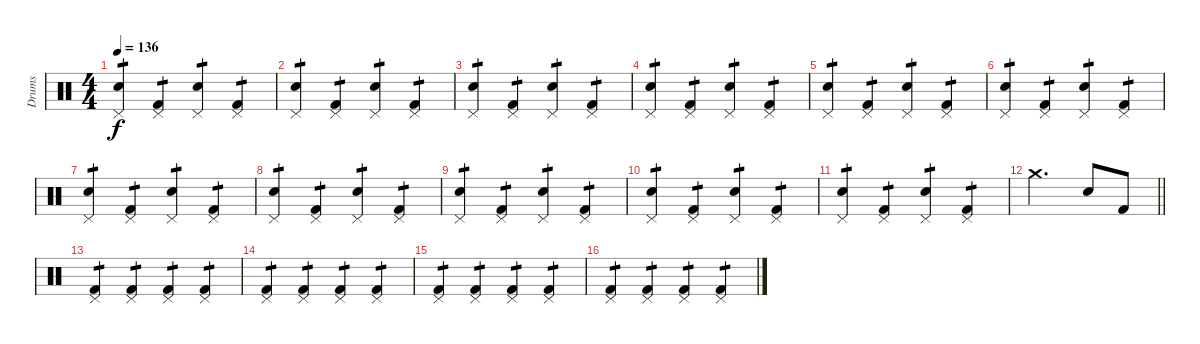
\track ("Drums" "Drums") {instrument percussion}
\staff {score}
\articulation defaults
\ts (4 4)
\tempo 136
\clef neutral
\ks c
("Snare (hit) 2" "Pedal Hi-Hat (hit)").4{tp 1 dy f} ("Kick (hit) 2" "Pedal Hi-Hat (hit)").4{tp 1} ("Snare (hit) 2" "Pedal Hi-Hat (hit)").4{tp 1} ("Kick (hit) 2" "Pedal Hi-Hat (hit)").4{tp 1} |
("Snare (hit) 2" "Pedal Hi-Hat (hit)").4{tp 1} ("Kick (hit) 2" "Pedal Hi-Hat (hit)").4{tp 1} ("Snare (hit) 2" "Pedal Hi-Hat (hit)").4{tp 1} ("Kick (hit) 2" "Pedal Hi-Hat (hit)").4{tp 1} |
("Snare (hit) 2" "Pedal Hi-Hat (hit)").4{tp 1} ("Kick (hit) 2" "Pedal Hi-Hat (hit)").4{tp 1} ("Snare (hit) 2" "Pedal Hi-Hat (hit)").4{tp 1} ("Kick (hit) 2" "Pedal Hi-Hat (hit)").4{tp 1} |
("Snare (hit) 2" "Pedal Hi-Hat (hit)").4{tp 1} ("Kick (hit) 2" "Pedal Hi-Hat (hit)").4{tp 1} ("Snare (hit) 2" "Pedal Hi-Hat (hit)").4{tp 1} ("Kick (hit) 2" "Pedal Hi-Hat (hit)").4{tp 1} |
("Snare (hit) 2" "Pedal Hi-Hat (hit)").4{tp 1} ("Kick (hit) 2" "Pedal Hi-Hat (hit)").4{tp 1} ("Snare (hit) 2" "Pedal Hi-Hat (hit)").4{tp 1} ("Kick (hit) 2" "Pedal Hi-Hat (hit)").4{tp 1} |
("Snare (hit) 2" "Pedal Hi-Hat (hit)").4{tp 1} ("Kick (hit) 2" "Pedal Hi-Hat (hit)").4{tp 1} ("Snare (hit) 2" "Pedal Hi-Hat (hit)").4{tp 1} ("Kick (hit) 2" "Pedal Hi-Hat (hit)").4{tp 1} |
("Snare (hit) 2" "Pedal Hi-Hat (hit)").4{tp 1} ("Kick (hit) 2" "Pedal Hi-Hat (hit)").4{tp 1} ("Snare (hit) 2" "Pedal Hi-Hat (hit)").4{tp 1} ("Kick (hit) 2" "Pedal Hi-Hat (hit)").4{tp 1} |
("Snare (hit) 2" "Pedal Hi-Hat (hit)").4{tp 1} ("Kick (hit) 2" "Pedal Hi-Hat (hit)").4{tp 1} ("Snare (hit) 2" "Pedal Hi-Hat (hit)").4{tp 1} ("Kick (hit) 2" "Pedal Hi-Hat (hit)").4{tp 1} |
("Snare (hit) 2" "Pedal Hi-Hat (hit)").4{tp 1} ("Kick (hit) 2" "Pedal Hi-Hat (hit)").4{tp 1} ("Snare (hit) 2" "Pedal Hi-Hat (hit)").4{tp 1} ("Kick (hit) 2" "Pedal Hi-Hat (hit)").4{tp 1} |
("Snare (hit) 2" "Pedal Hi-Hat (hit)").4{tp 1} ("Kick (hit) 2" "Pedal Hi-Hat (hit)").4{tp 1} ("Snare (hit) 2" "Pedal Hi-Hat (hit)").4{tp 1} ("Kick (hit) 2" "Pedal Hi-Hat (hit)").4{tp 1} |
("Snare (hit) 2" "Pedal Hi-Hat (hit)").4{tp 1} ("Kick (hit) 2" "Pedal Hi-Hat (hit)").4{tp 1} ("Snare (hit) 2" "Pedal Hi-Hat (hit)").4{tp 1} ("Kick (hit) 2" "Pedal Hi-Hat (hit)").4{tp 1} |
\barLineRight lightlight "Crash medium (hit)".2{d} "Snare (hit) 2".8 "Kick (hit) 2".8
|
\section ("" "")
("Kick (hit) 2" "Pedal Hi-Hat (hit)").4{tp 1} ("Kick (hit) 2" "Pedal Hi-Hat (hit)").4{tp 1} ("Kick (hit) 2" "Pedal Hi-Hat (hit)").4{tp 1} ("Kick (hit) 2" "Pedal Hi-Hat (hit)").4{tp 1} |
("Kick (hit) 2" "Pedal Hi-Hat (hit)").4{tp 1} ("Kick (hit) 2" "Pedal Hi-Hat (hit)").4{tp 1} ("Kick (hit) 2" "Pedal Hi-Hat (hit)").4{tp 1} ("Kick (hit) 2" "Pedal Hi-Hat (hit)").4{tp 1} |
("Kick (hit) 2" "Pedal Hi-Hat (hit)").4{tp 1} ("Kick (hit) 2" "Pedal Hi-Hat (hit)").4{tp 1} ("Kick (hit) 2" "Pedal Hi-Hat (hit)").4{tp 1} ("Kick (hit) 2" "Pedal Hi-Hat (hit)").4{tp 1} |
("Kick (hit) 2" "Pedal Hi-Hat (hit)").4{tp 1} ("Kick (hit) 2" "Pedal Hi-Hat (hit)").4{tp 1} ("Kick (hit) 2" "Pedal Hi-Hat (hit)").4{tp 1} ("Kick (hit) 2" "Pedal Hi-Hat (hit)").4{tp 1}
